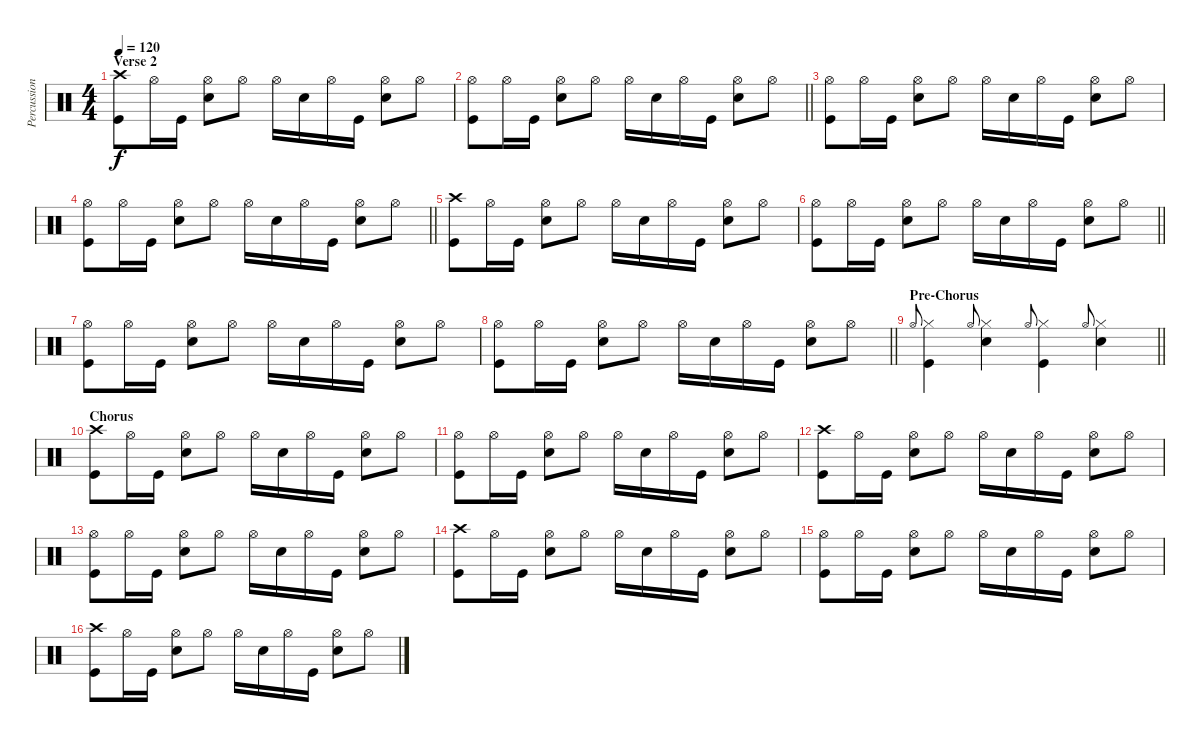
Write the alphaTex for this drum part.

\track ("Percussion" "Percussion") {instrument percussion}
\staff {score}
\articulation defaults
\ts (4 4)
\section ("" "Verse 2")
\tempo 120
\clef neutral
\ks c
("Crash high (hit)" "Kick (hit)").8{dy f} "Hi-Hat (open)".16 "Kick (hit)".16 ("Hi-Hat (open)" "Snare (hit) 2").8 "Hi-Hat (open)".8 "Hi-Hat (open)".16 "Snare (hit) 2".16 "Hi-Hat (open)".16 "Kick (hit)".16 ("Hi-Hat (open)" "Snare (hit) 2").8 "Hi-Hat (open)".8 |
\barLineRight lightlight
("Hi-Hat (open)" "Kick (hit)").8 "Hi-Hat (open)".16 "Kick (hit)".16 ("Hi-Hat (open)" "Snare (hit) 2").8 "Hi-Hat (open)".8 "Hi-Hat (open)".16 "Snare (hit) 2".16 "Hi-Hat (open)".16 "Kick (hit)".16 ("Hi-Hat (open)" "Snare (hit) 2").8 "Hi-Hat (open)".8 |
("Hi-Hat (open)" "Kick (hit)").8 "Hi-Hat (open)".16 "Kick (hit)".16 ("Hi-Hat (open)" "Snare (hit) 2").8 "Hi-Hat (open)".8 "Hi-Hat (open)".16 "Snare (hit) 2".16 "Hi-Hat (open)".16 "Kick (hit)".16 ("Hi-Hat (open)" "Snare (hit) 2").8 "Hi-Hat (open)".8 |
\barLineRight lightlight
("Hi-Hat (open)" "Kick (hit)").8 "Hi-Hat (open)".16 "Kick (hit)".16 ("Hi-Hat (open)" "Snare (hit) 2").8 "Hi-Hat (open)".8 "Hi-Hat (open)".16 "Snare (hit) 2".16 "Hi-Hat (open)".16 "Kick (hit)".16 ("Hi-Hat (open)" "Snare (hit) 2").8 "Hi-Hat (open)".8 |
("Crash high (hit)" "Kick (hit)").8 "Hi-Hat (open)".16 "Kick (hit)".16 ("Hi-Hat (open)" "Snare (hit) 2").8 "Hi-Hat (open)".8 "Hi-Hat (open)".16 "Snare (hit) 2".16 "Hi-Hat (open)".16 "Kick (hit)".16 ("Hi-Hat (open)" "Snare (hit) 2").8 "Hi-Hat (open)".8 |
\barLineRight lightlight
("Hi-Hat (open)" "Kick (hit)").8 "Hi-Hat (open)".16 "Kick (hit)".16 ("Hi-Hat (open)" "Snare (hit) 2").8 "Hi-Hat (open)".8 "Hi-Hat (open)".16 "Snare (hit) 2".16 "Hi-Hat (open)".16 "Kick (hit)".16 ("Hi-Hat (open)" "Snare (hit) 2").8 "Hi-Hat (open)".8 |
("Hi-Hat (open)" "Kick (hit)").8 "Hi-Hat (open)".16 "Kick (hit)".16 ("Hi-Hat (open)" "Snare (hit) 2").8 "Hi-Hat (open)".8 "Hi-Hat (open)".16 "Snare (hit) 2".16 "Hi-Hat (open)".16 "Kick (hit)".16 ("Hi-Hat (open)" "Snare (hit) 2").8 "Hi-Hat (open)".8 |
\barLineRight lightlight
("Hi-Hat (open)" "Kick (hit)").8 "Hi-Hat (open)".16 "Kick (hit)".16 ("Hi-Hat (open)" "Snare (hit) 2").8 "Hi-Hat (open)".8 "Hi-Hat (open)".16 "Snare (hit) 2".16 "Hi-Hat (open)".16 "Kick (hit)".16 ("Hi-Hat (open)" "Snare (hit) 2").8 "Hi-Hat (open)".8 |
\section ("" "Pre-Chorus")
\barLineRight lightlight "Hi-Hat (open)".8{gr onbeat}
("Hi-Hat (closed)" "Kick (hit)").4 "Hi-Hat (open)".8{gr onbeat} ("Hi-Hat (closed)" "Snare (hit) 2").4 "Hi-Hat (open)".8{gr onbeat} ("Hi-Hat (closed)" "Kick (hit)").4 "Hi-Hat (open)".8{gr onbeat} ("Hi-Hat (closed)" "Snare (hit) 2").4 |
\section ("" "Chorus")
("Crash high (hit)" "Kick (hit)").8 "Hi-Hat (open)".16 "Kick (hit)".16 ("Hi-Hat (open)" "Snare (hit) 2").8 "Hi-Hat (open)".8 "Hi-Hat (open)".16 "Snare (hit) 2".16 "Hi-Hat (open)".16 "Kick (hit)".16 ("Hi-Hat (open)" "Snare (hit) 2").8 "Hi-Hat (open)".8 |
("Hi-Hat (open)" "Kick (hit)").8 "Hi-Hat (open)".16 "Kick (hit)".16 ("Hi-Hat (open)" "Snare (hit) 2").8 "Hi-Hat (open)".8 "Hi-Hat (open)".16 "Snare (hit) 2".16 "Hi-Hat (open)".16 "Kick (hit)".16 ("Hi-Hat (open)" "Snare (hit) 2").8 "Hi-Hat (open)".8 |
("Crash high (hit)" "Kick (hit)").8 "Hi-Hat (open)".16 "Kick (hit)".16 ("Hi-Hat (open)" "Snare (hit) 2").8 "Hi-Hat (open)".8 "Hi-Hat (open)".16 "Snare (hit) 2".16 "Hi-Hat (open)".16 "Kick (hit)".16 ("Hi-Hat (open)" "Snare (hit) 2").8 "Hi-Hat (open)".8 |
("Hi-Hat (open)" "Kick (hit)").8 "Hi-Hat (open)".16 "Kick (hit)".16 ("Hi-Hat (open)" "Snare (hit) 2").8 "Hi-Hat (open)".8 "Hi-Hat (open)".16 "Snare (hit) 2".16 "Hi-Hat (open)".16 "Kick (hit)".16 ("Hi-Hat (open)" "Snare (hit) 2").8 "Hi-Hat (open)".8 |
("Crash high (hit)" "Kick (hit)").8 "Hi-Hat (open)".16 "Kick (hit)".16 ("Hi-Hat (open)" "Snare (hit) 2").8 "Hi-Hat (open)".8 "Hi-Hat (open)".16 "Snare (hit) 2".16 "Hi-Hat (open)".16 "Kick (hit)".16 ("Hi-Hat (open)" "Snare (hit) 2").8 "Hi-Hat (open)".8 |
("Hi-Hat (open)" "Kick (hit)").8 "Hi-Hat (open)".16 "Kick (hit)".16 ("Hi-Hat (open)" "Snare (hit) 2").8 "Hi-Hat (open)".8 "Hi-Hat (open)".16 "Snare (hit) 2".16 "Hi-Hat (open)".16 "Kick (hit)".16 ("Hi-Hat (open)" "Snare (hit) 2").8 "Hi-Hat (open)".8 |
("Crash high (hit)" "Kick (hit)").8 "Hi-Hat (open)".16 "Kick (hit)".16 ("Hi-Hat (open)" "Snare (hit) 2").8 "Hi-Hat (open)".8 "Hi-Hat (open)".16 "Snare (hit) 2".16 "Hi-Hat (open)".16 "Kick (hit)".16 ("Hi-Hat (open)" "Snare (hit) 2").8 "Hi-Hat (open)".8
